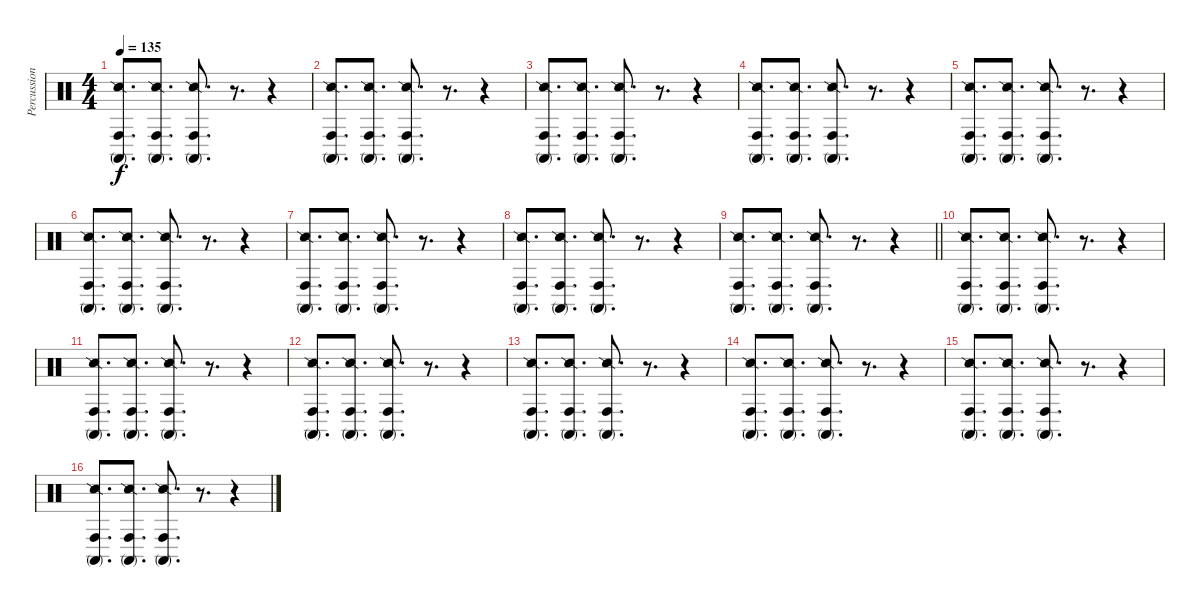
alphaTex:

\track ("Percussion FX" "Percussion") {instrument percussion}
\staff {score}
\articulation defaults
\ts (4 4)
\tempo 135
\clef neutral
\ks c
("Snare (side stick) 2" "Conga high (mute)" "Conga high (hit)").8{d dy f} ("Snare (side stick) 2" "Conga high (mute)" "Conga high (hit)").8{d} ("Snare (side stick) 2" "Conga high (mute)" "Conga high (hit)").8{d} r.8{d} r.4 |
("Snare (side stick) 2" "Conga high (mute)" "Conga high (hit)").8{d} ("Snare (side stick) 2" "Conga high (mute)" "Conga high (hit)").8{d} ("Snare (side stick) 2" "Conga high (mute)" "Conga high (hit)").8{d} r.8{d} r.4 |
("Snare (side stick) 2" "Conga high (mute)" "Conga high (hit)").8{d} ("Snare (side stick) 2" "Conga high (mute)" "Conga high (hit)").8{d} ("Snare (side stick) 2" "Conga high (mute)" "Conga high (hit)").8{d} r.8{d} r.4 |
("Snare (side stick) 2" "Conga high (mute)" "Conga high (hit)").8{d} ("Snare (side stick) 2" "Conga high (mute)" "Conga high (hit)").8{d} ("Snare (side stick) 2" "Conga high (mute)" "Conga high (hit)").8{d} r.8{d} r.4 |
("Snare (side stick) 2" "Conga high (mute)" "Conga high (hit)").8{d} ("Snare (side stick) 2" "Conga high (mute)" "Conga high (hit)").8{d} ("Snare (side stick) 2" "Conga high (mute)" "Conga high (hit)").8{d} r.8{d} r.4 |
("Snare (side stick) 2" "Conga high (mute)" "Conga high (hit)").8{d} ("Snare (side stick) 2" "Conga high (mute)" "Conga high (hit)").8{d} ("Snare (side stick) 2" "Conga high (mute)" "Conga high (hit)").8{d} r.8{d} r.4 |
("Snare (side stick) 2" "Conga high (mute)" "Conga high (hit)").8{d} ("Snare (side stick) 2" "Conga high (mute)" "Conga high (hit)").8{d} ("Snare (side stick) 2" "Conga high (mute)" "Conga high (hit)").8{d} r.8{d} r.4 |
("Snare (side stick) 2" "Conga high (mute)" "Conga high (hit)").8{d} ("Snare (side stick) 2" "Conga high (mute)" "Conga high (hit)").8{d} ("Snare (side stick) 2" "Conga high (mute)" "Conga high (hit)").8{d} r.8{d} r.4 |
\barLineRight lightlight
("Snare (side stick) 2" "Conga high (mute)" "Conga high (hit)").8{d} ("Snare (side stick) 2" "Conga high (mute)" "Conga high (hit)").8{d} ("Snare (side stick) 2" "Conga high (mute)" "Conga high (hit)").8{d} r.8{d} r.4 |
("Snare (side stick) 2" "Conga high (mute)" "Conga high (hit)").8{d} ("Snare (side stick) 2" "Conga high (mute)" "Conga high (hit)").8{d} ("Snare (side stick) 2" "Conga high (mute)" "Conga high (hit)").8{d} r.8{d} r.4 |
("Snare (side stick) 2" "Conga high (mute)" "Conga high (hit)").8{d} ("Snare (side stick) 2" "Conga high (mute)" "Conga high (hit)").8{d} ("Snare (side stick) 2" "Conga high (mute)" "Conga high (hit)").8{d} r.8{d} r.4 |
("Snare (side stick) 2" "Conga high (mute)" "Conga high (hit)").8{d} ("Snare (side stick) 2" "Conga high (mute)" "Conga high (hit)").8{d} ("Snare (side stick) 2" "Conga high (mute)" "Conga high (hit)").8{d} r.8{d} r.4 |
("Snare (side stick) 2" "Conga high (mute)" "Conga high (hit)").8{d} ("Snare (side stick) 2" "Conga high (mute)" "Conga high (hit)").8{d} ("Snare (side stick) 2" "Conga high (mute)" "Conga high (hit)").8{d} r.8{d} r.4 |
("Snare (side stick) 2" "Conga high (mute)" "Conga high (hit)").8{d} ("Snare (side stick) 2" "Conga high (mute)" "Conga high (hit)").8{d} ("Snare (side stick) 2" "Conga high (mute)" "Conga high (hit)").8{d} r.8{d} r.4 |
("Snare (side stick) 2" "Conga high (mute)" "Conga high (hit)").8{d} ("Snare (side stick) 2" "Conga high (mute)" "Conga high (hit)").8{d} ("Snare (side stick) 2" "Conga high (mute)" "Conga high (hit)").8{d} r.8{d} r.4 |
("Snare (side stick) 2" "Conga high (mute)" "Conga high (hit)").8{d} ("Snare (side stick) 2" "Conga high (mute)" "Conga high (hit)").8{d} ("Snare (side stick) 2" "Conga high (mute)" "Conga high (hit)").8{d} r.8{d} r.4
